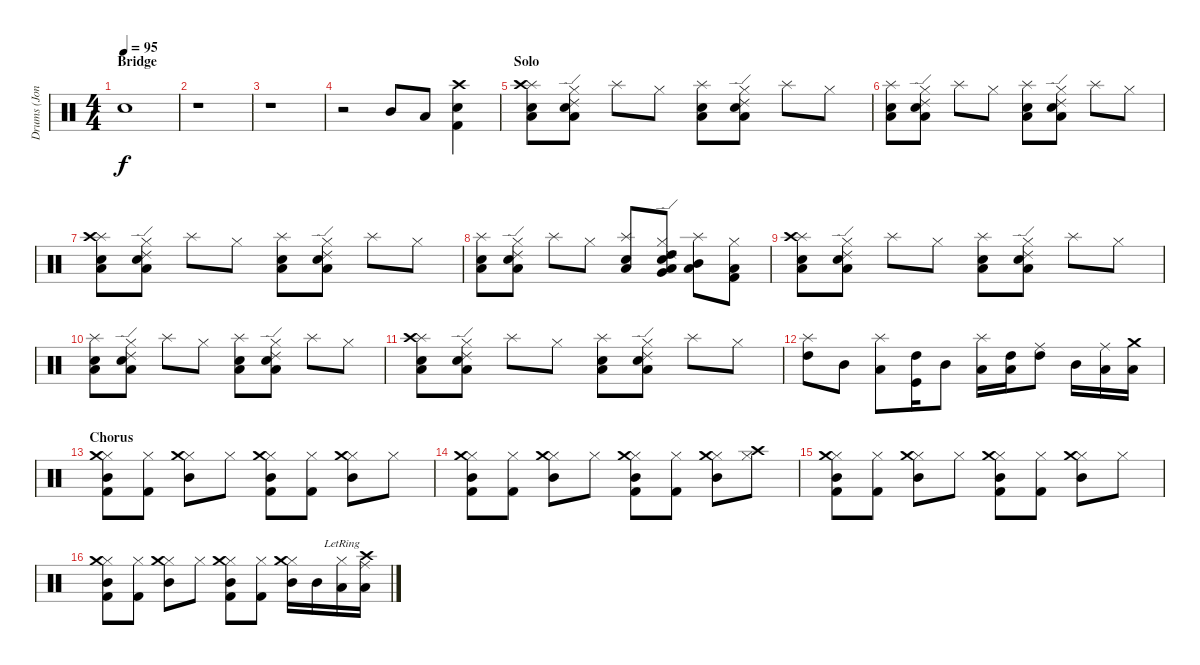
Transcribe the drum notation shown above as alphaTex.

\track ("Drums (Jon Lee)" "Drums (Jon") {instrument percussion}
\staff {score}
\articulation defaults
\ts (4 4)
\section ("" "Bridge")
\tempo 95
\clef neutral
\ks c "Snare (hit)"{t}.1{dy f volume 16}
|
r.1 |
r.1 |
r.2 "Mid Tom (hit)".8 "Low Tom (hit)".8 ("Kick (hit) 2" "Snare (hit) 2" "Crash high (hit)").4 |
\section ("" "Solo")
("Splash (hit)" "Low Floor Tom (hit)" "Snare (hit) 2" "Crash high (hit)").8{volume 13} ("Hi-Hat (closed)" "Low Floor Tom (hit)" "Ride (edge) 2" "Snare (hit) 2").8 "Splash (hit)".8 "Hi-Hat (closed)".8 ("Splash (hit)" "Low Floor Tom (hit)" "Snare (hit) 2").8 ("Hi-Hat (closed)" "Low Floor Tom (hit)" "Ride (edge) 2" "Snare (hit) 2").8 "Splash (hit)".8 "Hi-Hat (closed)".8 |
("Splash (hit)" "Low Floor Tom (hit)" "Snare (hit) 2").8 ("Hi-Hat (closed)" "Low Floor Tom (hit)" "Ride (edge) 2" "Snare (hit) 2").8 "Splash (hit)".8 "Hi-Hat (closed)".8 ("Splash (hit)" "Low Floor Tom (hit)" "Snare (hit) 2").8 ("Hi-Hat (closed)" "Low Floor Tom (hit)" "Ride (edge) 2" "Snare (hit) 2").8 "Splash (hit)".8 "Hi-Hat (closed)".8 |
("Splash (hit)" "Low Floor Tom (hit)" "Snare (hit) 2" "Crash high (hit)").8 ("Hi-Hat (closed)" "Low Floor Tom (hit)" "Ride (edge) 2" "Snare (hit) 2").8 "Splash (hit)".8 "Hi-Hat (closed)".8 ("Splash (hit)" "Low Floor Tom (hit)" "Snare (hit) 2").8 ("Hi-Hat (closed)" "Low Floor Tom (hit)" "Ride (edge) 2" "Snare (hit) 2").8 "Splash (hit)".8 "Hi-Hat (closed)".8 |
("Splash (hit)" "Low Floor Tom (hit)" "Snare (hit) 2").8 ("Hi-Hat (closed)" "Low Floor Tom (hit)" "Ride (edge) 2" "Snare (hit) 2").8 "Splash (hit)".8 "Hi-Hat (closed)".8 ("Splash (hit)" "Low Floor Tom (hit)" "Snare (hit) 2").8 ("Hi-Hat (closed)" "Low Floor Tom (hit)" "Ride (edge) 2" "Snare (hit) 2" "High Tom (hit)" "Very Low Tom (hit)").8 ("Splash (hit)" "Mid Tom (hit)" "Low Floor Tom (hit)").8 ("Hi-Hat (closed)" "Low Tom (hit)" "Kick (hit) 2").8 |
("Splash (hit)" "Low Floor Tom (hit)" "Snare (hit) 2" "Crash high (hit)").8 ("Hi-Hat (closed)" "Low Floor Tom (hit)" "Ride (edge) 2" "Snare (hit) 2").8 "Splash (hit)".8 "Hi-Hat (closed)".8 ("Splash (hit)" "Low Floor Tom (hit)" "Snare (hit) 2").8 ("Hi-Hat (closed)" "Low Floor Tom (hit)" "Ride (edge) 2" "Snare (hit) 2").8 "Splash (hit)".8 "Hi-Hat (closed)".8 |
("Splash (hit)" "Low Floor Tom (hit)" "Snare (hit) 2").8 ("Hi-Hat (closed)" "Low Floor Tom (hit)" "Ride (edge) 2" "Snare (hit) 2").8 "Splash (hit)".8 "Hi-Hat (closed)".8 ("Splash (hit)" "Low Floor Tom (hit)" "Snare (hit) 2").8 ("Hi-Hat (closed)" "Low Floor Tom (hit)" "Ride (edge) 2" "Snare (hit) 2").8 "Splash (hit)".8 "Hi-Hat (closed)".8 |
("Splash (hit)" "Low Floor Tom (hit)" "Snare (hit) 2" "Crash high (hit)").8 ("Hi-Hat (closed)" "Low Floor Tom (hit)" "Ride (edge) 2" "Snare (hit) 2").8 "Splash (hit)".8 "Hi-Hat (closed)".8 ("Splash (hit)" "Low Floor Tom (hit)" "Snare (hit) 2").8 ("Hi-Hat (closed)" "Low Floor Tom (hit)" "Ride (edge) 2" "Snare (hit) 2").8 "Splash (hit)".8 "Hi-Hat (closed)".8 |
("Splash (hit)" "High Tom (hit)").8{volume 16} "Mid Tom (hit)".8 ("Splash (hit)" "Low Floor Tom (hit)").8 ("Kick (hit)" "High Tom (hit)").16 "Mid Tom (hit)".8 ("Splash (hit)" "Low Tom (hit)").16 ("High Tom (hit)" "Low Floor Tom (hit)").16 ("Ride (middle)" "High Tom (hit)").8 "Mid Tom (hit)".16 ("Ride (middle)" "Low Tom (hit)").16 ("Crash medium (hit)" "Low Floor Tom (hit)").16 |
\section ("" "Chorus")
("Hi-Hat (closed)" "Crash medium (hit)" "Mid Tom (hit)" "Kick (hit) 2").8{volume 16} ("Hi-Hat (closed)" "Kick (hit) 2").8 ("Hi-Hat (closed)" "Crash medium (hit)" "Mid Tom (hit)").8 "Hi-Hat (closed)".8 ("Hi-Hat (closed)" "Crash medium (hit)" "Mid Tom (hit)" "Kick (hit) 2").8 ("Hi-Hat (closed)" "Kick (hit) 2").8 ("Hi-Hat (closed)" "Crash medium (hit)" "Mid Tom (hit)").8 "Hi-Hat (closed)".8 |
("Hi-Hat (closed)" "Crash medium (hit)" "Mid Tom (hit)" "Kick (hit) 2").8 ("Hi-Hat (closed)" "Kick (hit) 2").8 ("Hi-Hat (closed)" "Crash medium (hit)" "Mid Tom (hit)").8 "Hi-Hat (closed)".8 ("Hi-Hat (closed)" "Crash medium (hit)" "Mid Tom (hit)" "Kick (hit) 2").8 ("Hi-Hat (closed)" "Kick (hit) 2").8 ("Hi-Hat (closed)" "Crash medium (hit)" "Mid Tom (hit)").8 ("Hi-Hat (closed)" "Crash high (hit)").8 |
("Hi-Hat (closed)" "Crash medium (hit)" "Mid Tom (hit)" "Kick (hit) 2").8 ("Hi-Hat (closed)" "Kick (hit) 2").8 ("Hi-Hat (closed)" "Crash medium (hit)" "Mid Tom (hit)").8 "Hi-Hat (closed)".8 ("Hi-Hat (closed)" "Crash medium (hit)" "Mid Tom (hit)" "Kick (hit) 2").8 ("Hi-Hat (closed)" "Kick (hit) 2").8 ("Hi-Hat (closed)" "Crash medium (hit)" "Mid Tom (hit)").8 "Hi-Hat (closed)".8 |
("Hi-Hat (closed)" "Crash medium (hit)" "Mid Tom (hit)" "Kick (hit) 2").8 ("Hi-Hat (closed)" "Kick (hit) 2").8 ("Hi-Hat (closed)" "Crash medium (hit)" "Mid Tom (hit)").8 "Hi-Hat (closed)".8 ("Hi-Hat (closed)" "Crash medium (hit)" "Mid Tom (hit)" "Kick (hit) 2").8 ("Hi-Hat (closed)" "Kick (hit) 2").8 ("Hi-Hat (closed)" "Crash medium (hit)" "Mid Tom (hit)").16 "Mid Tom (hit)".16 ("Hi-Hat (closed)"{lr} "Low Tom (hit)").16 ("Crash high (hit)" "Ride (middle)" "Low Tom (hit)").16
